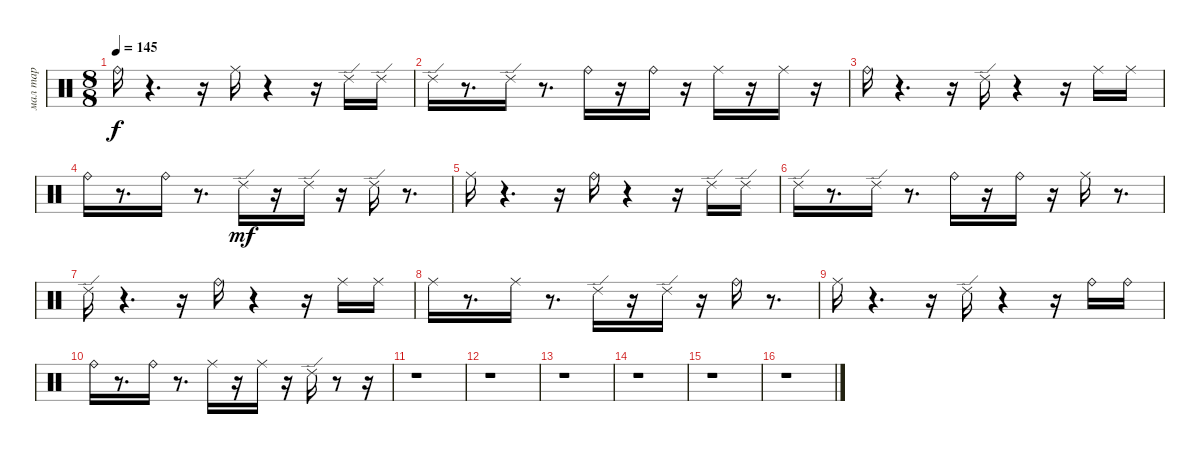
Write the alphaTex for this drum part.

\track ("мал тар" "мал тар") {instrument percussion}
\staff {score}
\articulation defaults
\ts (8 8)
\tempo 145
\clef neutral
\ks c "Ride (bell)".16{dy f}
r.4{d} r.16 "Ride (middle)".16 r.4 r.16 "Ride (edge) 2".16 "Ride (edge) 2".16 |
"Ride (edge) 2".16 r.8{d} "Ride (edge) 2".16 r.8{d} "Ride (bell)".16 r.16 "Ride (bell)".16 r.16 "Ride (middle)".16 r.16 "Ride (middle)".16 r.16 |
"Ride (bell)".16 r.4{d} r.16 "Ride (edge) 2".16 r.4 r.16 "Ride (middle)".16 "Ride (middle)".16 |
"Ride (bell)".16 r.8{d} "Ride (bell)".16 r.8{d} "Ride (edge) 2".16{dy mf} r.16 "Ride (edge) 2".16 r.16 "Ride (edge) 2".16 r.8{d} |
"Ride (middle)".16 r.4{d} r.16 "Ride (bell)".16 r.4 r.16 "Ride (edge) 2".16 "Ride (edge) 2".16 |
"Ride (edge) 2".16 r.8{d} "Ride (edge) 2".16 r.8{d} "Ride (bell)".16 r.16 "Ride (bell)".16 r.16 "Ride (middle)".16 r.8{d} |
"Ride (edge) 2".16 r.4{d} r.16 "Ride (bell)".16 r.4 r.16 "Ride (middle)".16 "Ride (middle)".16 |
"Ride (middle)".16 r.8{d} "Ride (middle)".16 r.8{d} "Ride (edge) 2".16 r.16 "Ride (edge) 2".16 r.16 "Ride (bell)".16 r.8{d} |
"Ride (middle)".16 r.4{d} r.16 "Ride (edge) 2".16 r.4 r.16 "Ride (bell)".16 "Ride (bell)".16 |
"Ride (bell)".16 r.8{d} "Ride (bell)".16 r.8{d} "Ride (middle)".16 r.16 "Ride (middle)".16 r.16 "Ride (edge) 2".16 r.8 r.16 |
r.1 |
r.1 |
r.1 |
r.1 |
r.1 |
r.1
